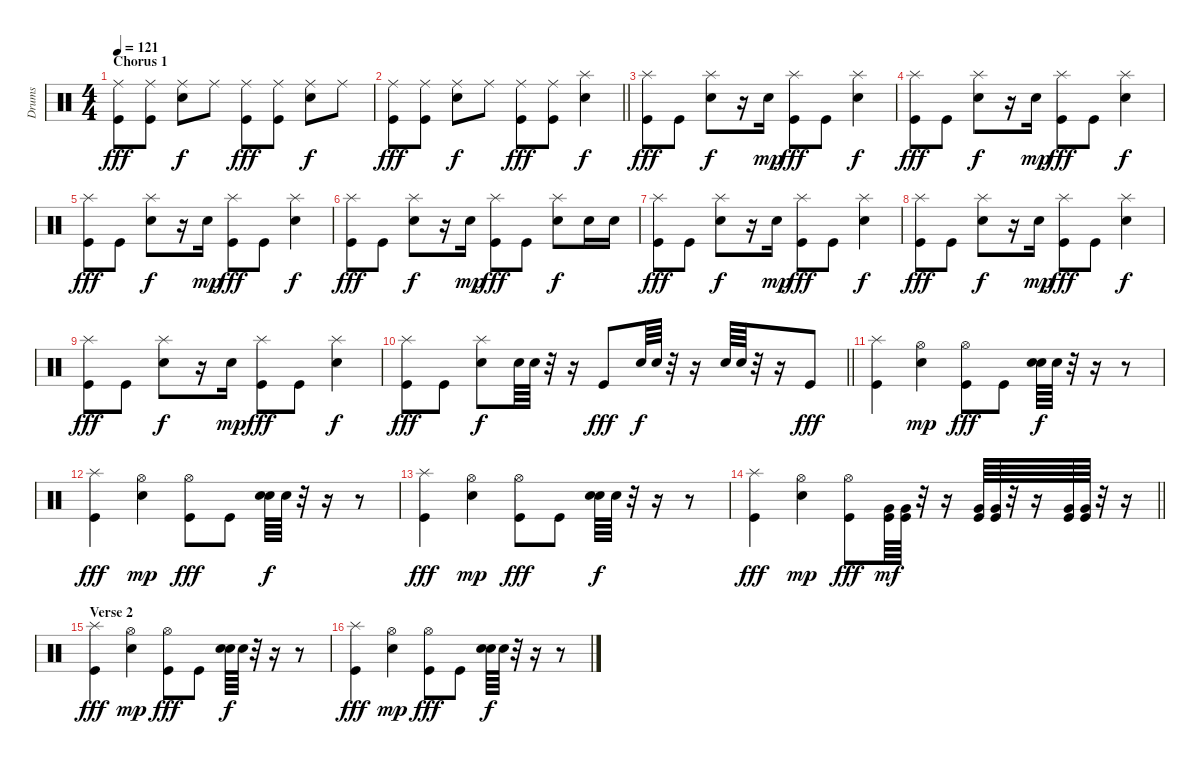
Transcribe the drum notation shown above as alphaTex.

\track ("Drums" "Drums") {instrument percussion}
\staff {score}
\articulation defaults
\ts (4 4)
\section ("" "Chorus 1")
\tempo 121
\clef neutral
\ks c
("Ride (middle)" "Kick (hit)").8{dy fff} ("Ride (middle)" "Kick (hit)").8 ("Ride (middle)" "Snare (hit) 2").8{dy f} "Ride (middle)".8 ("Ride (middle)" "Kick (hit)").8{dy fff} ("Ride (middle)" "Kick (hit)").8 ("Ride (middle)" "Snare (hit) 2").8{dy f} "Ride (middle)".8 |
\barLineRight lightlight
("Ride (middle)" "Kick (hit)").8{dy fff} ("Ride (middle)" "Kick (hit)").8 ("Ride (middle)" "Snare (hit) 2").8{dy f} "Ride (middle)".8 ("Ride (middle)" "Kick (hit)").8{dy fff} ("Ride (middle)" "Kick (hit)").8 ("Splash (hit)" "Snare (hit) 2").4{dy f} |
("Splash (hit)" "Kick (hit)").8{dy fff} "Kick (hit)".8 ("Splash (hit)" "Snare (hit) 2").8{dy f} r.16 "Snare (hit) 2".16{dy mp} ("Splash (hit)" "Kick (hit)").8{dy fff} "Kick (hit)".8 ("Splash (hit)" "Snare (hit) 2").4{dy f} |
("Splash (hit)" "Kick (hit)").8{dy fff} "Kick (hit)".8 ("Splash (hit)" "Snare (hit) 2").8{dy f} r.16 "Snare (hit) 2".16{dy mp} ("Splash (hit)" "Kick (hit)").8{dy fff} "Kick (hit)".8 ("Splash (hit)" "Snare (hit) 2").4{dy f} |
("Splash (hit)" "Kick (hit)").8{dy fff} "Kick (hit)".8 ("Splash (hit)" "Snare (hit) 2").8{dy f} r.16 "Snare (hit) 2".16{dy mp} ("Splash (hit)" "Kick (hit)").8{dy fff} "Kick (hit)".8 ("Splash (hit)" "Snare (hit) 2").4{dy f} |
("Splash (hit)" "Kick (hit)").8{dy fff} "Kick (hit)".8 ("Splash (hit)" "Snare (hit) 2").8{dy f} r.16 "Snare (hit) 2".16{dy mp} ("Splash (hit)" "Kick (hit)").8{dy fff} "Kick (hit)".8 ("Splash (hit)" "Snare (hit) 2").8{dy f} "Snare (hit) 2".16 "Snare (hit) 2".16 |
("Splash (hit)" "Kick (hit)").8{dy fff} "Kick (hit)".8 ("Splash (hit)" "Snare (hit) 2").8{dy f} r.16 "Snare (hit) 2".16{dy mp} ("Splash (hit)" "Kick (hit)").8{dy fff} "Kick (hit)".8 ("Splash (hit)" "Snare (hit) 2").4{dy f} |
("Splash (hit)" "Kick (hit)").8{dy fff} "Kick (hit)".8 ("Splash (hit)" "Snare (hit) 2").8{dy f} r.16 "Snare (hit) 2".16{dy mp} ("Splash (hit)" "Kick (hit)").8{dy fff} "Kick (hit)".8 ("Splash (hit)" "Snare (hit) 2").4{dy f} |
("Splash (hit)" "Kick (hit)").8{dy fff} "Kick (hit)".8 ("Splash (hit)" "Snare (hit) 2").8{dy f} r.16 "Snare (hit) 2".16{dy mp} ("Splash (hit)" "Kick (hit)").8{dy fff} "Kick (hit)".8 ("Splash (hit)" "Snare (hit) 2").4{dy f} |
\barLineRight lightlight
("Splash (hit)" "Kick (hit)").8{dy fff} "Kick (hit)".8 ("Splash (hit)" "Snare (hit) 2").8{dy f} "Snare (hit) 2".64 "Snare (hit) 2".64 r.32 r.16 "Kick (hit)".8{dy fff} "Snare (hit) 2".64{dy f} "Snare (hit) 2".64 r.32 r.16 "Snare (hit) 2".64 "Snare (hit) 2".64 r.32 r.16 "Kick (hit)".8{dy fff} |
("Splash (hit)" "Kick (hit)").4 ("Hi-Hat (open)" "Snare (hit) 2").4{dy mp} ("Hi-Hat (open)" "Kick (hit)").8{dy fff} "Kick (hit)".8 ("Snare (hit)"{x} "Snare (hit) 2").64{dy f} "Snare (hit) 2".64 r.32 r.16 r.8 |
("Splash (hit)" "Kick (hit)").4{dy fff} ("Hi-Hat (open)" "Snare (hit) 2").4{dy mp} ("Hi-Hat (open)" "Kick (hit)").8{dy fff} "Kick (hit)".8 ("Snare (hit)"{x} "Snare (hit) 2").64{dy f} "Snare (hit) 2".64 r.32 r.16 r.8 |
("Splash (hit)" "Kick (hit)").4{dy fff} ("Hi-Hat (open)" "Snare (hit) 2").4{dy mp} ("Hi-Hat (open)" "Kick (hit)").8{dy fff} "Kick (hit)".8 ("Snare (hit)"{x} "Snare (hit) 2").64{dy f} "Snare (hit) 2".64 r.32 r.16 r.8 |
\barLineRight lightlight
("Splash (hit)" "Kick (hit)").4{dy fff} ("Hi-Hat (open)" "Snare (hit) 2").4{dy mp} ("Hi-Hat (open)" "Kick (hit)").8{dy fff} ("Very Low Tom (hit)" "Kick (hit)").64{dy mf} ("Very Low Tom (hit)" "Kick (hit)").64 r.32 r.16 ("Very Low Tom (hit)" "Kick (hit)").64 ("Very Low Tom (hit)" "Kick (hit)").64 r.32 r.16 ("Very Low Tom (hit)" "Kick (hit)").64 ("Very Low Tom (hit)" "Kick (hit)").64 r.32 r.16 |
\section ("" "Verse 2")
("Splash (hit)" "Kick (hit)").4{dy fff} ("Hi-Hat (open)" "Snare (hit) 2").4{dy mp} ("Hi-Hat (open)" "Kick (hit)").8{dy fff} "Kick (hit)".8 ("Snare (hit)"{x} "Snare (hit) 2").64{dy f} "Snare (hit) 2".64 r.32 r.16 r.8 |
("Splash (hit)" "Kick (hit)").4{dy fff} ("Hi-Hat (open)" "Snare (hit) 2").4{dy mp} ("Hi-Hat (open)" "Kick (hit)").8{dy fff} "Kick (hit)".8 ("Snare (hit)"{x} "Snare (hit) 2").64{dy f} "Snare (hit) 2".64 r.32 r.16 r.8
